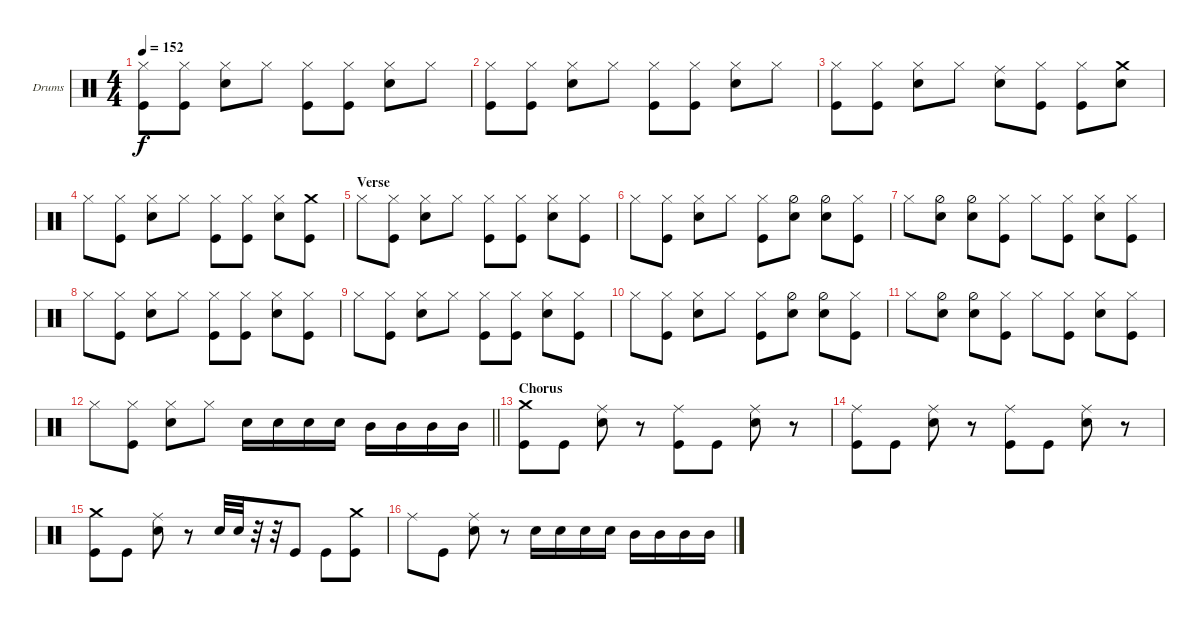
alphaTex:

\bracketExtendMode groupsimilarinstruments
\firstSystemTrackNameOrientation horizontal
\otherSystemsTrackNameOrientation horizontal
\track ("Drumkit" "Drums") {instrument percussion}
\staff {score}
\articulation defaults
\ts (4 4)
\tempo 152
\clef neutral
\ks c
("Kick (hit)" "Hi-Hat (closed)").8{dy f} ("Hi-Hat (closed)" "Kick (hit)").8 ("Snare (hit) 2" "Hi-Hat (closed)").8 "Hi-Hat (closed)".8 ("Kick (hit)" "Hi-Hat (closed)").8 ("Kick (hit)" "Hi-Hat (closed)").8 ("Snare (hit) 2" "Hi-Hat (closed)").8 "Hi-Hat (closed)".8 |
("Hi-Hat (closed)" "Kick (hit)").8 ("Hi-Hat (closed)" "Kick (hit)").8 ("Snare (hit) 2" "Hi-Hat (closed)").8 "Hi-Hat (closed)".8 ("Kick (hit)" "Hi-Hat (closed)").8 ("Kick (hit)" "Hi-Hat (closed)").8 ("Snare (hit) 2" "Hi-Hat (closed)").8 "Hi-Hat (closed)".8 |
("Hi-Hat (closed)" "Kick (hit)").8 ("Hi-Hat (closed)" "Kick (hit)").8 ("Snare (hit) 2" "Hi-Hat (closed)").8 "Hi-Hat (closed)".8 ("Snare (hit) 2" "Ride (middle)").8 ("Kick (hit)" "Hi-Hat (closed)").8 ("Kick (hit)" "Hi-Hat (closed)").8 ("Snare (hit) 2" "Crash medium (hit)").8 |
"Hi-Hat (closed)".8 ("Kick (hit)" "Hi-Hat (closed)").8 ("Snare (hit) 2" "Hi-Hat (closed)").8 "Hi-Hat (closed)".8 ("Kick (hit)" "Hi-Hat (closed)").8 ("Kick (hit)" "Hi-Hat (closed)").8 ("Snare (hit) 2" "Hi-Hat (closed)").8 ("Kick (hit)" "Crash medium (hit)").8 |
\section ("" "Verse")
"Hi-Hat (closed)".8 ("Hi-Hat (closed)" "Kick (hit)").8 ("Snare (hit) 2" "Hi-Hat (closed)").8 "Hi-Hat (closed)".8 ("Kick (hit)" "Hi-Hat (closed)").8 ("Kick (hit)" "Hi-Hat (closed)").8 ("Snare (hit) 2" "Hi-Hat (closed)").8 ("Hi-Hat (closed)" "Kick (hit)").8 |
"Hi-Hat (closed)".8 ("Kick (hit)" "Hi-Hat (closed)").8 ("Snare (hit) 2" "Hi-Hat (closed)").8 "Hi-Hat (closed)".8 ("Hi-Hat (closed)" "Kick (hit)").8 ("Snare (hit) 2" "Hi-Hat (half)").8 ("Snare (hit) 2" "Hi-Hat (half)").8 ("Kick (hit)" "Hi-Hat (closed)").8 |
"Hi-Hat (closed)".8 ("Snare (hit) 2" "Hi-Hat (half)").8 ("Snare (hit) 2" "Hi-Hat (half)").8 ("Kick (hit)" "Hi-Hat (closed)").8 "Hi-Hat (closed)".8 ("Kick (hit)" "Hi-Hat (closed)").8 ("Snare (hit) 2" "Hi-Hat (closed)").8 ("Hi-Hat (closed)" "Kick (hit)").8 |
"Hi-Hat (closed)".8 ("Hi-Hat (closed)" "Kick (hit)").8 ("Snare (hit) 2" "Hi-Hat (closed)").8 "Hi-Hat (closed)".8 ("Kick (hit)" "Hi-Hat (closed)").8 ("Kick (hit)" "Hi-Hat (closed)").8 ("Snare (hit) 2" "Hi-Hat (closed)").8 ("Hi-Hat (closed)" "Kick (hit)").8 |
"Hi-Hat (closed)".8 ("Hi-Hat (closed)" "Kick (hit)").8 ("Snare (hit) 2" "Hi-Hat (closed)").8 "Hi-Hat (closed)".8 ("Kick (hit)" "Hi-Hat (closed)").8 ("Kick (hit)" "Hi-Hat (closed)").8 ("Snare (hit) 2" "Hi-Hat (closed)").8 ("Hi-Hat (closed)" "Kick (hit)").8 |
"Hi-Hat (closed)".8 ("Kick (hit)" "Hi-Hat (closed)").8 ("Snare (hit) 2" "Hi-Hat (closed)").8 "Hi-Hat (closed)".8 ("Hi-Hat (closed)" "Kick (hit)").8 ("Snare (hit) 2" "Hi-Hat (half)").8 ("Snare (hit) 2" "Hi-Hat (half)").8 ("Kick (hit)" "Hi-Hat (closed)").8 |
"Hi-Hat (closed)".8 ("Snare (hit) 2" "Hi-Hat (half)").8 ("Snare (hit) 2" "Hi-Hat (half)").8 ("Kick (hit)" "Hi-Hat (closed)").8 "Hi-Hat (closed)".8 ("Kick (hit)" "Hi-Hat (closed)").8 ("Snare (hit) 2" "Hi-Hat (closed)").8 ("Hi-Hat (closed)" "Kick (hit)").8 |
\barLineRight lightlight "Hi-Hat (closed)".8
("Hi-Hat (closed)" "Kick (hit)").8 ("Snare (hit) 2" "Hi-Hat (closed)").8 "Hi-Hat (closed)".8 "Snare (hit) 2".16 "Snare (hit) 2".16 "Snare (hit) 2".16 "Snare (hit) 2".16 "Mid Tom (hit)".16 "Mid Tom (hit)".16 "Mid Tom (hit)".16 "Mid Tom (hit)".16 |
\section ("" "Chorus")
("Kick (hit)" "Crash medium (hit)").8 "Kick (hit)".8 ("Snare (hit) 2" "Ride (middle)").8 r.8 ("Kick (hit)" "Ride (middle)").8 "Kick (hit)".8 ("Snare (hit) 2" "Ride (middle)").8 r.8 |
("Kick (hit)" "Ride (middle)").8 "Kick (hit)".8 ("Snare (hit) 2" "Ride (middle)").8 r.8 ("Kick (hit)" "Ride (middle)").8 "Kick (hit)".8 ("Snare (hit) 2" "Ride (middle)").8 r.8 |
("Kick (hit)" "Crash medium (hit)").8 "Kick (hit)".8 ("Snare (hit) 2" "Ride (middle)").8 r.8 "Snare (hit) 2".32 "Snare (hit) 2".32 r.32 r.32 "Kick (hit)".8 "Kick (hit)".8 ("Kick (hit)" "Crash medium (hit)").8 |
"Ride (middle)".8 "Kick (hit)".8 ("Snare (hit) 2" "Ride (middle)").8 r.8 "Snare (hit) 2".16 "Snare (hit) 2".16 "Snare (hit) 2".16 "Snare (hit) 2".16 "Mid Tom (hit)".16 "Mid Tom (hit)".16 "Mid Tom (hit)".16 "Mid Tom (hit)".16
